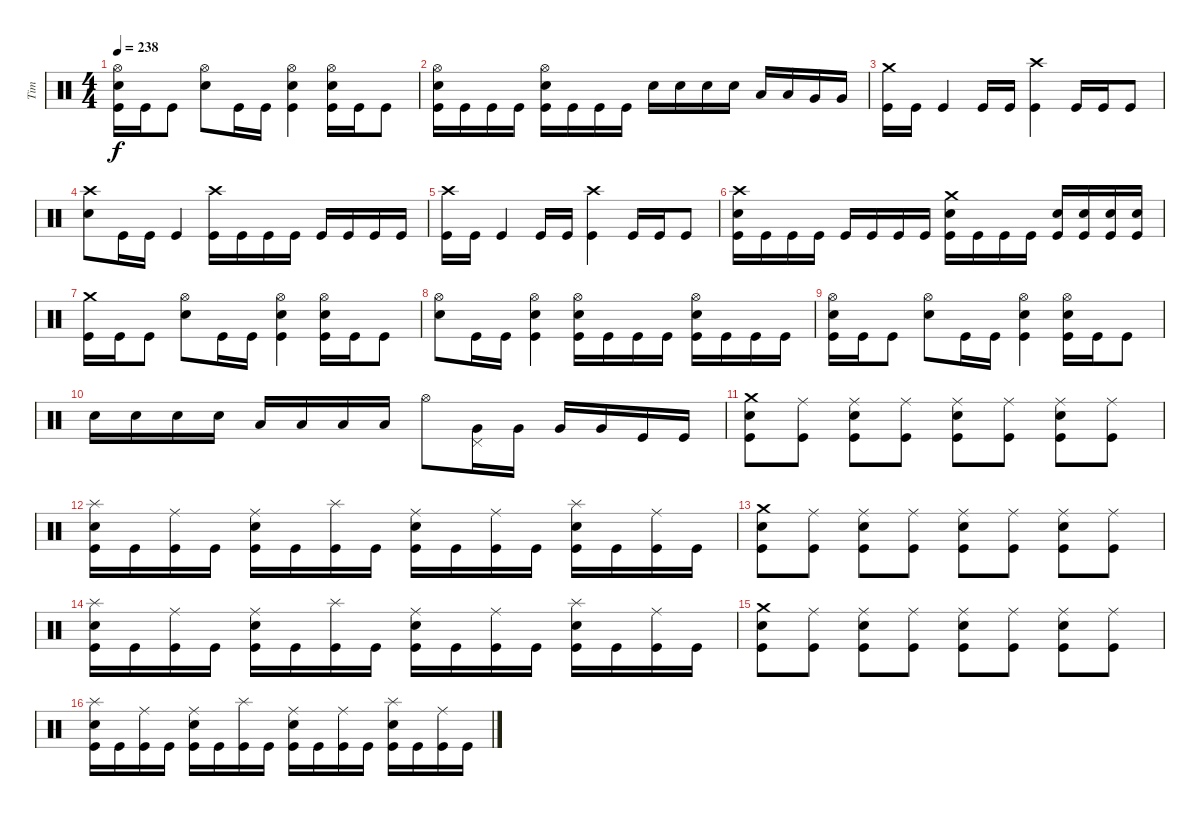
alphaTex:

\track ("Tim" "Tim") {instrument percussion}
\staff {score}
\articulation defaults
\ts (4 4)
\tempo 238
\clef neutral
\ks c
("Hi-Hat (open)" "Electric Snare (hit)" "Kick (hit)").16{dy f} "Kick (hit)".16 "Kick (hit)".8 ("Hi-Hat (open)" "Electric Snare (hit)").8 "Kick (hit)".16 "Kick (hit)".16 ("Hi-Hat (open)" "Electric Snare (hit)" "Kick (hit)").4 ("Hi-Hat (open)" "Electric Snare (hit)" "Kick (hit)").16 "Kick (hit)".16 "Kick (hit)".8 |
("Hi-Hat (open)" "Electric Snare (hit)" "Kick (hit)").16 "Kick (hit)".16 "Kick (hit)".16 "Kick (hit)".16 ("Hi-Hat (open)" "Electric Snare (hit)" "Kick (hit)").16 "Kick (hit)".16 "Kick (hit)".16 "Kick (hit)".16 "Electric Snare (hit)".16 "Electric Snare (hit)".16 "Electric Snare (hit)".16 "Electric Snare (hit)".16 "Low Tom (hit)".16 "Low Tom (hit)".16 "Very Low Tom (hit)".16 "Very Low Tom (hit)".16 |
("Crash medium (hit)" "Kick (hit)").16 "Kick (hit)".16 "Kick (hit)".4 "Kick (hit)".16 "Kick (hit)".16 ("Crash high (hit)" "Kick (hit)").4 "Kick (hit)".16 "Kick (hit)".16 "Kick (hit)".8 |
("Crash high (hit)" "Electric Snare (hit)").8 "Kick (hit)".16 "Kick (hit)".16 "Kick (hit)".4 ("Crash high (hit)" "Kick (hit)").16 "Kick (hit)".16 "Kick (hit)".16 "Kick (hit)".16 "Kick (hit)".16 "Kick (hit)".16 "Kick (hit)".16 "Kick (hit)".16 |
("Crash high (hit)" "Kick (hit)").16 "Kick (hit)".16 "Kick (hit)".4 "Kick (hit)".16 "Kick (hit)".16 ("Crash high (hit)" "Kick (hit)").4 "Kick (hit)".16 "Kick (hit)".16 "Kick (hit)".8 |
("Crash high (hit)" "Electric Snare (hit)" "Kick (hit)").16 "Kick (hit)".16 "Kick (hit)".16 "Kick (hit)".16 "Kick (hit)".16 "Kick (hit)".16 "Kick (hit)".16 "Kick (hit)".16 ("Crash medium (hit)" "Electric Snare (hit)" "Kick (hit)").16 "Kick (hit)".16 "Kick (hit)".16 "Kick (hit)".16 ("Electric Snare (hit)" "Kick (hit)").16 ("Electric Snare (hit)" "Kick (hit)").16 ("Electric Snare (hit)" "Kick (hit)").16 ("Electric Snare (hit)" "Kick (hit)").16 |
("Crash medium (hit)" "Kick (hit)").16 "Kick (hit)".16 "Kick (hit)".8 ("Hi-Hat (open)" "Electric Snare (hit)").8 "Kick (hit)".16 "Kick (hit)".16 ("Hi-Hat (open)" "Electric Snare (hit)" "Kick (hit)").4 ("Hi-Hat (open)" "Electric Snare (hit)" "Kick (hit)").16 "Kick (hit)".16 "Kick (hit)".8 |
("Hi-Hat (open)" "Electric Snare (hit)").8 "Kick (hit)".16 "Kick (hit)".16 ("Hi-Hat (open)" "Electric Snare (hit)" "Kick (hit)").4 ("Hi-Hat (open)" "Electric Snare (hit)" "Kick (hit)").16 "Kick (hit)".16 "Kick (hit)".16 "Kick (hit)".16 ("Hi-Hat (open)" "Electric Snare (hit)" "Kick (hit)").16 "Kick (hit)".16 "Kick (hit)".16 "Kick (hit)".16 |
("Hi-Hat (open)" "Electric Snare (hit)" "Kick (hit)").16 "Kick (hit)".16 "Kick (hit)".8 ("Hi-Hat (open)" "Electric Snare (hit)").8 "Kick (hit)".16 "Kick (hit)".16 ("Hi-Hat (open)" "Electric Snare (hit)" "Kick (hit)").4 ("Hi-Hat (open)" "Electric Snare (hit)" "Kick (hit)").16 "Kick (hit)".16 "Kick (hit)".8 |
"Electric Snare (hit)".16 "Electric Snare (hit)".16 "Electric Snare (hit)".16 "Electric Snare (hit)".16 "Low Tom (hit)".16 "Low Tom (hit)".16 "Low Tom (hit)".16 "Low Tom (hit)".16 "Hi-Hat (open)".8 ("Pedal Hi-Hat (hit)" "Very Low Tom (hit)").16 "Very Low Tom (hit)".16 "Very Low Tom (hit)".16 "Very Low Tom (hit)".16 "Kick (hit)".16 "Kick (hit)".16 |
("Crash medium (hit)" "Electric Snare (hit)" "Kick (hit)").8 ("Ride (middle)" "Kick (hit)").8 ("Ride (middle)" "Electric Snare (hit)" "Kick (hit)").8 ("Ride (middle)" "Kick (hit)").8 ("Ride (middle)" "Electric Snare (hit)" "Kick (hit)").8 ("Ride (middle)" "Kick (hit)").8 ("Ride (middle)" "Electric Snare (hit)" "Kick (hit)").8 ("Ride (middle)" "Kick (hit)").8 |
("Splash (hit)" "Electric Snare (hit)" "Kick (hit)").16 "Kick (hit)".16 ("Ride (middle)" "Kick (hit)").16 "Kick (hit)".16 ("Ride (middle)" "Electric Snare (hit)" "Kick (hit)").16 "Kick (hit)".16 ("Splash (hit)" "Kick (hit)").16 "Kick (hit)".16 ("Ride (middle)" "Electric Snare (hit)" "Kick (hit)").16 "Kick (hit)".16 ("Ride (middle)" "Kick (hit)").16 "Kick (hit)".16 ("Splash (hit)" "Electric Snare (hit)" "Kick (hit)").16 "Kick (hit)".16 ("Ride (middle)" "Kick (hit)").16 "Kick (hit)".16 |
("Crash medium (hit)" "Electric Snare (hit)" "Kick (hit)").8 ("Ride (middle)" "Kick (hit)").8 ("Ride (middle)" "Electric Snare (hit)" "Kick (hit)").8 ("Ride (middle)" "Kick (hit)").8 ("Ride (middle)" "Electric Snare (hit)" "Kick (hit)").8 ("Ride (middle)" "Kick (hit)").8 ("Ride (middle)" "Electric Snare (hit)" "Kick (hit)").8 ("Ride (middle)" "Kick (hit)").8 |
("Splash (hit)" "Electric Snare (hit)" "Kick (hit)").16 "Kick (hit)".16 ("Ride (middle)" "Kick (hit)").16 "Kick (hit)".16 ("Ride (middle)" "Electric Snare (hit)" "Kick (hit)").16 "Kick (hit)".16 ("Splash (hit)" "Kick (hit)").16 "Kick (hit)".16 ("Ride (middle)" "Electric Snare (hit)" "Kick (hit)").16 "Kick (hit)".16 ("Ride (middle)" "Kick (hit)").16 "Kick (hit)".16 ("Splash (hit)" "Electric Snare (hit)" "Kick (hit)").16 "Kick (hit)".16 ("Ride (middle)" "Kick (hit)").16 "Kick (hit)".16 |
("Crash medium (hit)" "Electric Snare (hit)" "Kick (hit)").8 ("Ride (middle)" "Kick (hit)").8 ("Ride (middle)" "Electric Snare (hit)" "Kick (hit)").8 ("Ride (middle)" "Kick (hit)").8 ("Ride (middle)" "Electric Snare (hit)" "Kick (hit)").8 ("Ride (middle)" "Kick (hit)").8 ("Ride (middle)" "Electric Snare (hit)" "Kick (hit)").8 ("Ride (middle)" "Kick (hit)").8 |
("Splash (hit)" "Electric Snare (hit)" "Kick (hit)").16 "Kick (hit)".16 ("Ride (middle)" "Kick (hit)").16 "Kick (hit)".16 ("Ride (middle)" "Electric Snare (hit)" "Kick (hit)").16 "Kick (hit)".16 ("Splash (hit)" "Kick (hit)").16 "Kick (hit)".16 ("Ride (middle)" "Electric Snare (hit)" "Kick (hit)").16 "Kick (hit)".16 ("Ride (middle)" "Kick (hit)").16 "Kick (hit)".16 ("Splash (hit)" "Electric Snare (hit)" "Kick (hit)").16 "Kick (hit)".16 ("Ride (middle)" "Kick (hit)").16 "Kick (hit)".16
